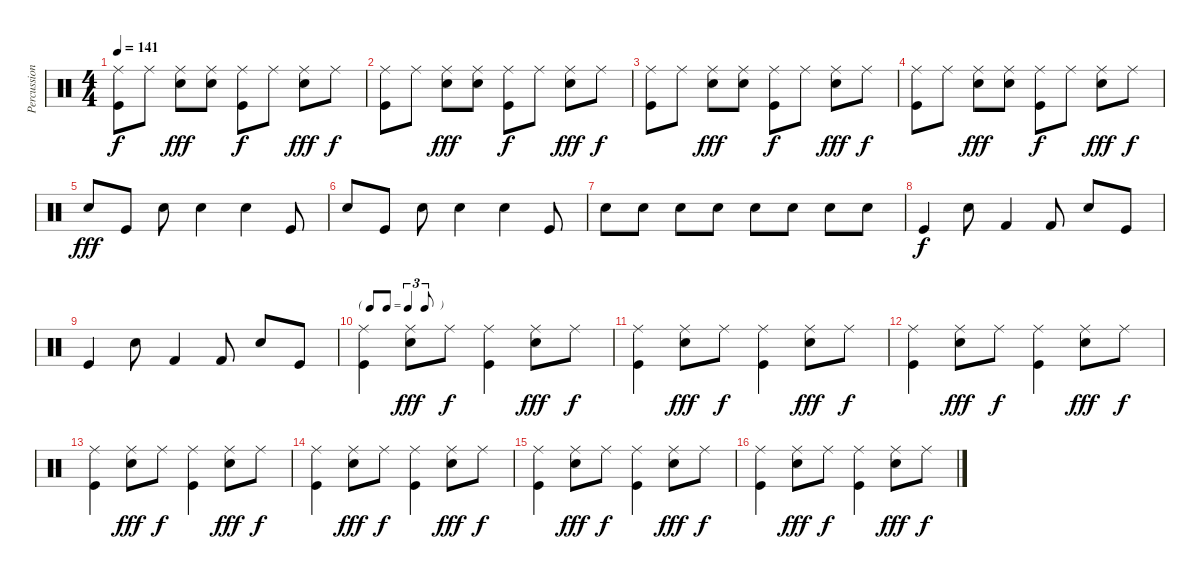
\track ("Percussions 2" "Percussion") {mute instrument percussion}
\staff {score}
\articulation defaults
\ts (4 4)
\tempo 141
\clef neutral
\ks c
("Kick (hit)" "Ride (middle)").8{dy f} "Ride (middle)".8 ("Snare (hit) 2" "Ride (middle)").8{dy fff} ("Snare (hit) 2" "Ride (middle)").8 ("Kick (hit)" "Ride (middle)").8{dy f} "Ride (middle)".8 ("Snare (hit) 2" "Ride (middle)").8{dy fff} "Ride (middle)".8{dy f} |
("Kick (hit)" "Ride (middle)").8 "Ride (middle)".8 ("Snare (hit) 2" "Ride (middle)").8{dy fff} ("Snare (hit) 2" "Ride (middle)").8 ("Kick (hit)" "Ride (middle)").8{dy f} "Ride (middle)".8 ("Snare (hit) 2" "Ride (middle)").8{dy fff} "Ride (middle)".8{dy f} |
("Kick (hit)" "Ride (middle)").8 "Ride (middle)".8 ("Snare (hit) 2" "Ride (middle)").8{dy fff} ("Snare (hit) 2" "Ride (middle)").8 ("Kick (hit)" "Ride (middle)").8{dy f} "Ride (middle)".8 ("Snare (hit) 2" "Ride (middle)").8{dy fff} "Ride (middle)".8{dy f} |
("Kick (hit)" "Ride (middle)").8 "Ride (middle)".8 ("Snare (hit) 2" "Ride (middle)").8{dy fff} ("Snare (hit) 2" "Ride (middle)").8 ("Kick (hit)" "Ride (middle)").8{dy f} "Ride (middle)".8 ("Snare (hit) 2" "Ride (middle)").8{dy fff} "Ride (middle)".8{dy f} |
"Snare (hit) 2".8{dy fff} "Kick (hit)".8 "Snare (hit) 2".8 "Snare (hit) 2".4 "Snare (hit) 2".4 "Kick (hit)".8 |
"Snare (hit) 2".8 "Kick (hit)".8 "Snare (hit) 2".8 "Snare (hit) 2".4 "Snare (hit) 2".4 "Kick (hit)".8 |
"Snare (hit) 2".8 "Snare (hit) 2".8 "Snare (hit) 2".8 "Snare (hit) 2".8 "Snare (hit) 2".8 "Snare (hit) 2".8 "Snare (hit) 2".8 "Snare (hit) 2".8 |
"Kick (hit)".4{dy f} "Snare (hit) 2".8 "Kick (hit) 2".4 "Kick (hit) 2".8 "Snare (hit) 2".8 "Kick (hit)".8 |
"Kick (hit)".4 "Snare (hit) 2".8 "Kick (hit) 2".4 "Kick (hit) 2".8 "Snare (hit) 2".8 "Kick (hit)".8 |
\tf triplet8th
("Kick (hit)" "Ride (middle)").4 ("Snare (hit) 2" "Ride (middle)").8{dy fff} "Ride (middle)".8{dy f} ("Kick (hit)" "Ride (middle)").4 ("Snare (hit) 2" "Ride (middle)").8{dy fff} "Ride (middle)".8{dy f} |
("Kick (hit)" "Ride (middle)").4 ("Snare (hit) 2" "Ride (middle)").8{dy fff} "Ride (middle)".8{dy f} ("Kick (hit)" "Ride (middle)").4 ("Snare (hit) 2" "Ride (middle)").8{dy fff} "Ride (middle)".8{dy f} |
("Kick (hit)" "Ride (middle)").4 ("Snare (hit) 2" "Ride (middle)").8{dy fff} "Ride (middle)".8{dy f} ("Kick (hit)" "Ride (middle)").4 ("Snare (hit) 2" "Ride (middle)").8{dy fff} "Ride (middle)".8{dy f} |
("Kick (hit)" "Ride (middle)").4 ("Snare (hit) 2" "Ride (middle)").8{dy fff} "Ride (middle)".8{dy f} ("Kick (hit)" "Ride (middle)").4 ("Snare (hit) 2" "Ride (middle)").8{dy fff} "Ride (middle)".8{dy f} |
("Kick (hit)" "Ride (middle)").4 ("Snare (hit) 2" "Ride (middle)").8{dy fff} "Ride (middle)".8{dy f} ("Kick (hit)" "Ride (middle)").4 ("Snare (hit) 2" "Ride (middle)").8{dy fff} "Ride (middle)".8{dy f} |
("Kick (hit)" "Ride (middle)").4 ("Snare (hit) 2" "Ride (middle)").8{dy fff} "Ride (middle)".8{dy f} ("Kick (hit)" "Ride (middle)").4 ("Snare (hit) 2" "Ride (middle)").8{dy fff} "Ride (middle)".8{dy f} |
("Kick (hit)" "Ride (middle)").4 ("Snare (hit) 2" "Ride (middle)").8{dy fff} "Ride (middle)".8{dy f} ("Kick (hit)" "Ride (middle)").4 ("Snare (hit) 2" "Ride (middle)").8{dy fff} "Ride (middle)".8{dy f}
